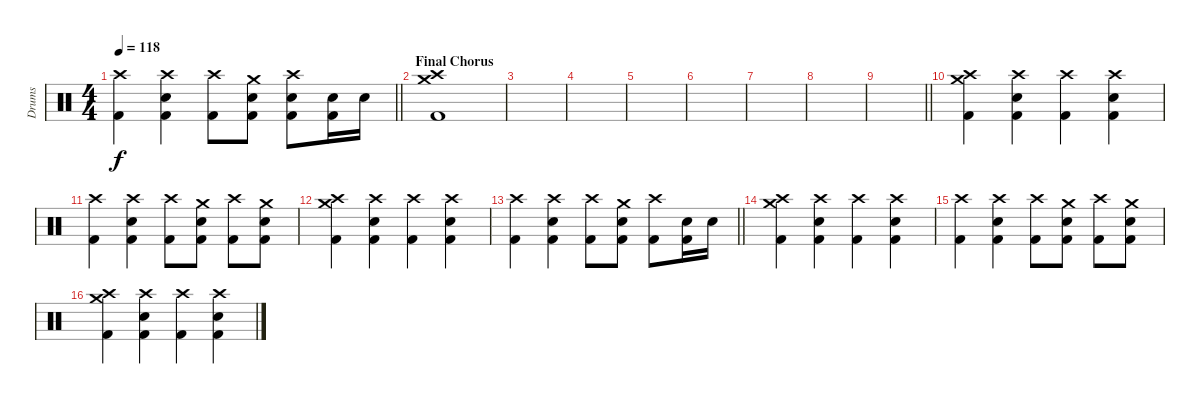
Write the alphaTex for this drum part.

\track ("Drums" "Drums") {instrument percussion}
\staff {score}
\articulation defaults
\ts (4 4)
\tempo 118
\clef neutral
\barLineRight lightlight
\ks c
("Crash high (hit)" "Kick (hit) 2").4{dy f} ("Crash high (hit)" "Snare (hit) 2" "Kick (hit) 2").4 ("Crash high (hit)" "Kick (hit) 2").8 ("Crash medium (hit)" "Snare (hit) 2" "Kick (hit) 2").8 ("Crash high (hit)" "Snare (hit) 2" "Kick (hit) 2").8 ("Snare (hit) 2" "Kick (hit) 2").16 "Snare (hit) 2".16 |
\section ("" "Final Chorus")
("Crash medium (hit)" "Crash high (hit)" "Kick (hit) 2").1 |
|
|
|
|
|
|
\barLineRight lightlight
|
("Crash medium (hit)" "Crash high (hit)" "Kick (hit) 2").4 ("Crash high (hit)" "Snare (hit) 2" "Kick (hit) 2").4 ("Crash high (hit)" "Kick (hit) 2").4 ("Crash high (hit)" "Snare (hit) 2" "Kick (hit) 2").4 |
("Crash high (hit)" "Kick (hit) 2").4 ("Crash high (hit)" "Snare (hit) 2" "Kick (hit) 2").4 ("Crash high (hit)" "Kick (hit) 2").8 ("Crash medium (hit)" "Snare (hit) 2" "Kick (hit) 2").8 ("Crash high (hit)" "Kick (hit) 2").8 ("Crash medium (hit)" "Snare (hit) 2" "Kick (hit) 2").8 |
("Crash medium (hit)" "Crash high (hit)" "Kick (hit) 2").4 ("Crash high (hit)" "Snare (hit) 2" "Kick (hit) 2").4 ("Crash high (hit)" "Kick (hit) 2").4 ("Crash high (hit)" "Snare (hit) 2" "Kick (hit) 2").4 |
\barLineRight lightlight
("Crash high (hit)" "Kick (hit) 2").4 ("Crash high (hit)" "Snare (hit) 2" "Kick (hit) 2").4 ("Crash high (hit)" "Kick (hit) 2").8 ("Crash medium (hit)" "Snare (hit) 2" "Kick (hit) 2").8 ("Crash high (hit)" "Kick (hit) 2").8 ("Snare (hit) 2" "Kick (hit) 2").16 "Snare (hit) 2".16 |
("Crash medium (hit)" "Crash high (hit)" "Kick (hit) 2").4 ("Crash high (hit)" "Snare (hit) 2" "Kick (hit) 2").4 ("Crash high (hit)" "Kick (hit) 2").4 ("Crash high (hit)" "Snare (hit) 2" "Kick (hit) 2").4 |
("Crash high (hit)" "Kick (hit) 2").4 ("Crash high (hit)" "Snare (hit) 2" "Kick (hit) 2").4 ("Crash high (hit)" "Kick (hit) 2").8 ("Crash medium (hit)" "Snare (hit) 2" "Kick (hit) 2").8 ("Crash high (hit)" "Kick (hit) 2").8 ("Crash medium (hit)" "Snare (hit) 2" "Kick (hit) 2").8 |
("Crash medium (hit)" "Crash high (hit)" "Kick (hit) 2").4 ("Crash high (hit)" "Snare (hit) 2" "Kick (hit) 2").4 ("Crash high (hit)" "Kick (hit) 2").4 ("Crash high (hit)" "Snare (hit) 2" "Kick (hit) 2").4
